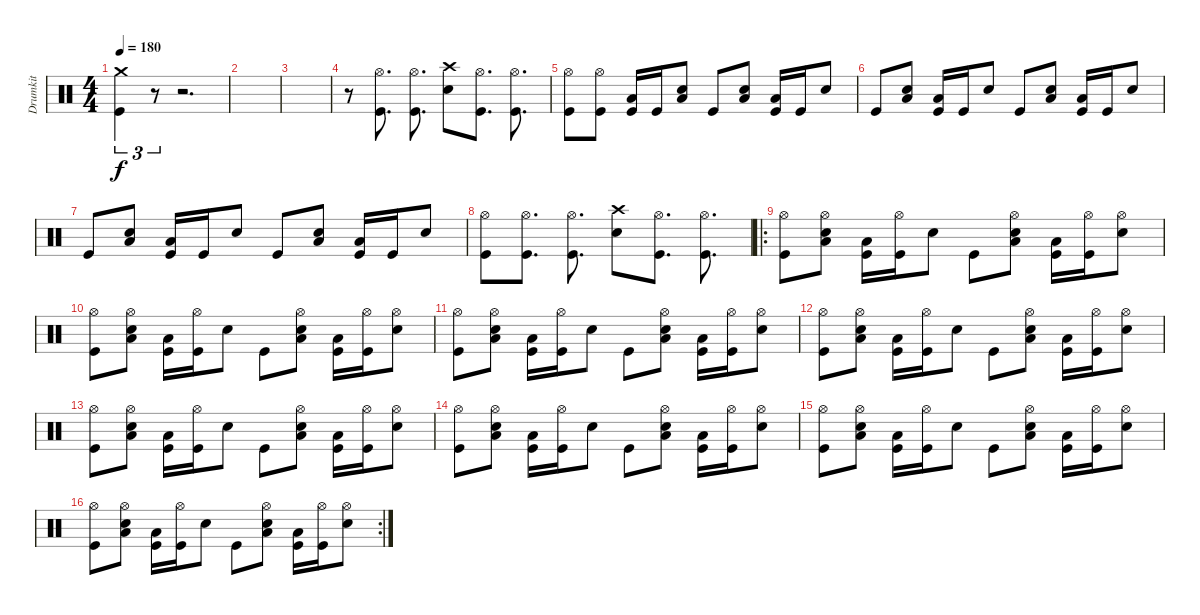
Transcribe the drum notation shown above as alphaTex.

\track ("Drumkit" "Drumkit") {instrument percussion}
\staff {score}
\articulation defaults
\ts (4 4)
\tempo 180
\clef neutral
\ks c
("Crash medium (hit)" "Kick (hit)").4{tu (3 2) dy f} r.8{tu (3 2)} r.2{d} |
|
|
r.8 ("Hi-Hat (open)" "Kick (hit)").8{d} ("Hi-Hat (open)" "Kick (hit)").8{d} ("Crash high (hit)" "Electric Snare (hit)").8 ("Hi-Hat (open)" "Kick (hit)").8{d} ("Hi-Hat (open)" "Kick (hit)").8{d} |
("Hi-Hat (open)" "Kick (hit)").8 ("Hi-Hat (open)" "Kick (hit)").8 ("Low Floor Tom (hit)" "Kick (hit)").16 "Kick (hit)".16 ("Electric Snare (hit)" "Low Floor Tom (hit)").8 "Kick (hit)".8 ("Electric Snare (hit)" "Low Floor Tom (hit)").8 ("Low Floor Tom (hit)" "Kick (hit)").16 "Kick (hit)".16 "Electric Snare (hit)".8 |
"Kick (hit)".8 ("Electric Snare (hit)" "Low Floor Tom (hit)").8 ("Low Floor Tom (hit)" "Kick (hit)").16 "Kick (hit)".16 "Electric Snare (hit)".8 "Kick (hit)".8 ("Electric Snare (hit)" "Low Floor Tom (hit)").8 ("Low Floor Tom (hit)" "Kick (hit)").16 "Kick (hit)".16 "Electric Snare (hit)".8 |
"Kick (hit)".8 ("Electric Snare (hit)" "Low Floor Tom (hit)").8 ("Low Floor Tom (hit)" "Kick (hit)").16 "Kick (hit)".16 "Electric Snare (hit)".8 "Kick (hit)".8 ("Electric Snare (hit)" "Low Floor Tom (hit)").8 ("Low Floor Tom (hit)" "Kick (hit)").16 "Kick (hit)".16 "Electric Snare (hit)".8 |
("Hi-Hat (open)" "Kick (hit)").8 ("Hi-Hat (open)" "Kick (hit)").8{d} ("Hi-Hat (open)" "Kick (hit)").8{d} ("Crash high (hit)" "Electric Snare (hit)").8 ("Hi-Hat (open)" "Kick (hit)").8{d} ("Hi-Hat (open)" "Kick (hit)").8{d} |
\ro
("Hi-Hat (open)" "Kick (hit)").8 ("Hi-Hat (open)" "Electric Snare (hit)" "Low Floor Tom (hit)").8 ("Low Floor Tom (hit)" "Kick (hit)").16 ("Hi-Hat (open)" "Kick (hit)").16 "Electric Snare (hit)".8 "Kick (hit)".8 ("Hi-Hat (open)" "Electric Snare (hit)" "Low Floor Tom (hit)").8 ("Low Floor Tom (hit)" "Kick (hit)").16 ("Hi-Hat (open)" "Kick (hit)").16 ("Hi-Hat (open)" "Electric Snare (hit)").8 |
("Hi-Hat (open)" "Kick (hit)").8 ("Hi-Hat (open)" "Electric Snare (hit)" "Low Floor Tom (hit)").8 ("Low Floor Tom (hit)" "Kick (hit)").16 ("Hi-Hat (open)" "Kick (hit)").16 "Electric Snare (hit)".8 "Kick (hit)".8 ("Hi-Hat (open)" "Electric Snare (hit)" "Low Floor Tom (hit)").8 ("Low Floor Tom (hit)" "Kick (hit)").16 ("Hi-Hat (open)" "Kick (hit)").16 ("Hi-Hat (open)" "Electric Snare (hit)").8 |
("Hi-Hat (open)" "Kick (hit)").8 ("Hi-Hat (open)" "Electric Snare (hit)" "Low Floor Tom (hit)").8 ("Low Floor Tom (hit)" "Kick (hit)").16 ("Hi-Hat (open)" "Kick (hit)").16 "Electric Snare (hit)".8 "Kick (hit)".8 ("Hi-Hat (open)" "Electric Snare (hit)" "Low Floor Tom (hit)").8 ("Low Floor Tom (hit)" "Kick (hit)").16 ("Hi-Hat (open)" "Kick (hit)").16 ("Hi-Hat (open)" "Electric Snare (hit)").8 |
("Hi-Hat (open)" "Kick (hit)").8 ("Hi-Hat (open)" "Electric Snare (hit)" "Low Floor Tom (hit)").8 ("Low Floor Tom (hit)" "Kick (hit)").16 ("Hi-Hat (open)" "Kick (hit)").16 "Electric Snare (hit)".8 "Kick (hit)".8 ("Hi-Hat (open)" "Electric Snare (hit)" "Low Floor Tom (hit)").8 ("Low Floor Tom (hit)" "Kick (hit)").16 ("Hi-Hat (open)" "Kick (hit)").16 ("Hi-Hat (open)" "Electric Snare (hit)").8 |
("Hi-Hat (open)" "Kick (hit)").8 ("Hi-Hat (open)" "Electric Snare (hit)" "Low Floor Tom (hit)").8 ("Low Floor Tom (hit)" "Kick (hit)").16 ("Hi-Hat (open)" "Kick (hit)").16 "Electric Snare (hit)".8 "Kick (hit)".8 ("Hi-Hat (open)" "Electric Snare (hit)" "Low Floor Tom (hit)").8 ("Low Floor Tom (hit)" "Kick (hit)").16 ("Hi-Hat (open)" "Kick (hit)").16 ("Hi-Hat (open)" "Electric Snare (hit)").8 |
("Hi-Hat (open)" "Kick (hit)").8 ("Hi-Hat (open)" "Electric Snare (hit)" "Low Floor Tom (hit)").8 ("Low Floor Tom (hit)" "Kick (hit)").16 ("Hi-Hat (open)" "Kick (hit)").16 "Electric Snare (hit)".8 "Kick (hit)".8 ("Hi-Hat (open)" "Electric Snare (hit)" "Low Floor Tom (hit)").8 ("Low Floor Tom (hit)" "Kick (hit)").16 ("Hi-Hat (open)" "Kick (hit)").16 ("Hi-Hat (open)" "Electric Snare (hit)").8 |
("Hi-Hat (open)" "Kick (hit)").8 ("Hi-Hat (open)" "Electric Snare (hit)" "Low Floor Tom (hit)").8 ("Low Floor Tom (hit)" "Kick (hit)").16 ("Hi-Hat (open)" "Kick (hit)").16 "Electric Snare (hit)".8 "Kick (hit)".8 ("Hi-Hat (open)" "Electric Snare (hit)" "Low Floor Tom (hit)").8 ("Low Floor Tom (hit)" "Kick (hit)").16 ("Hi-Hat (open)" "Kick (hit)").16 ("Hi-Hat (open)" "Electric Snare (hit)").8 |
\rc 2
("Hi-Hat (open)" "Kick (hit)").8 ("Hi-Hat (open)" "Electric Snare (hit)" "Low Floor Tom (hit)").8 ("Low Floor Tom (hit)" "Kick (hit)").16 ("Hi-Hat (open)" "Kick (hit)").16 "Electric Snare (hit)".8 "Kick (hit)".8 ("Hi-Hat (open)" "Electric Snare (hit)" "Low Floor Tom (hit)").8 ("Low Floor Tom (hit)" "Kick (hit)").16 ("Hi-Hat (open)" "Kick (hit)").16 ("Hi-Hat (open)" "Electric Snare (hit)").8
